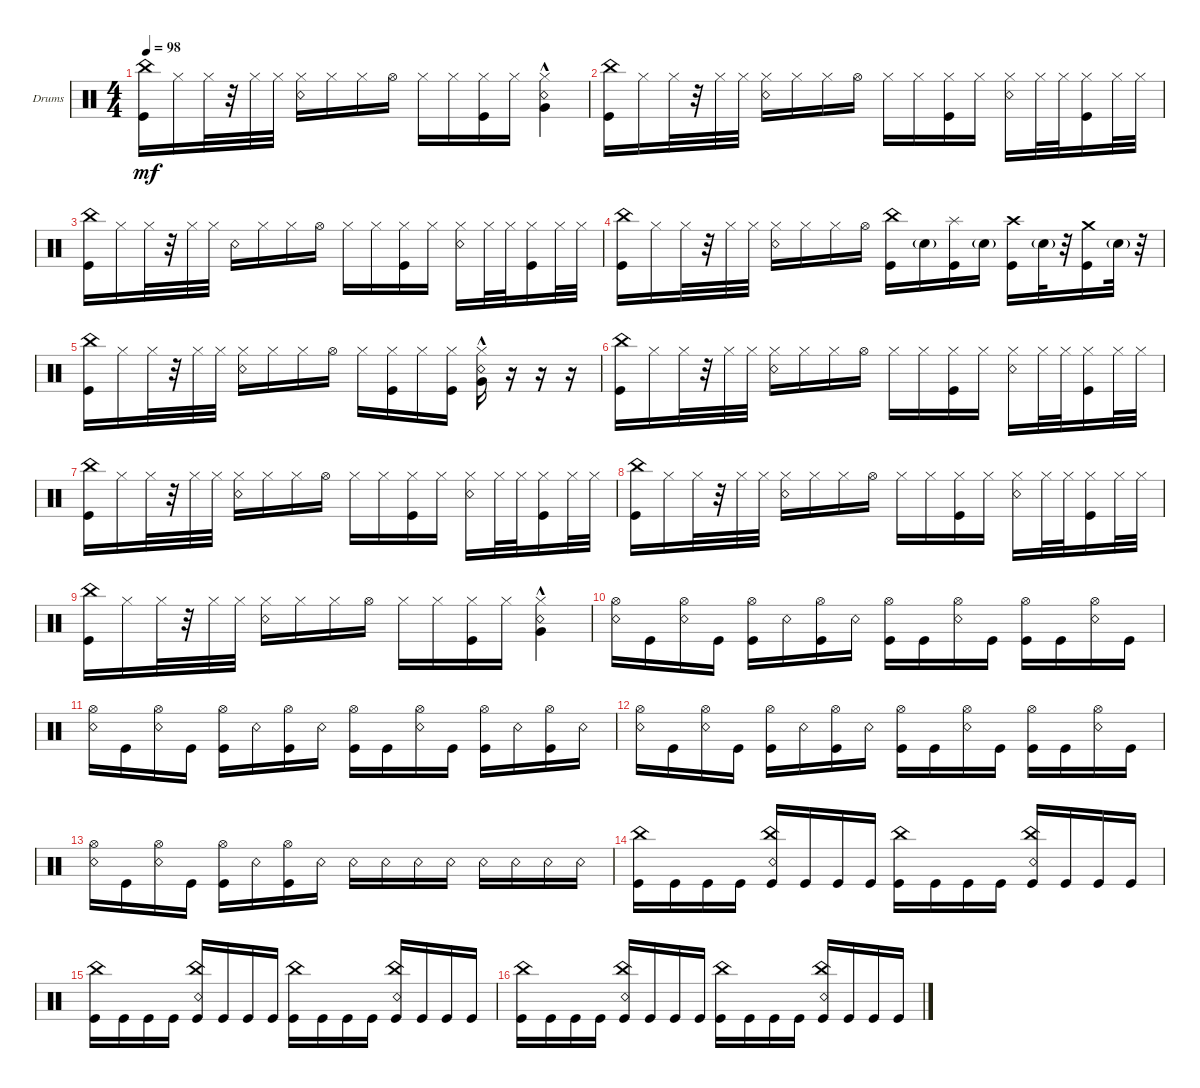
\defaultSystemsLayout 4
\bracketExtendMode groupsimilarinstruments
\firstSystemTrackNameOrientation horizontal
\otherSystemsTrackNameOrientation horizontal
\track ("Drumkit" "Drums") {instrument percussion}
\staff {score}
\articulation defaults
\ts (4 4)
\tempo 98
\clef neutral
\ks c
("Kick (hit)" "China (hit)").16{dy mf} "Hi-Hat (closed)".16 "Hi-Hat (closed)".32 r.32 "Hi-Hat (closed)".32 "Hi-Hat (closed)".32 ("Hi-Hat (closed)" "Snare (rim shot)").16 "Hi-Hat (closed)".16 "Hi-Hat (closed)".16 "Hi-Hat (open)".16 "Hi-Hat (closed)".16 "Hi-Hat (closed)".16 ("Hi-Hat (closed)" "Kick (hit)").16 "Hi-Hat (closed)".16 ("Hi-Hat (closed)" "Snare (rim shot)" "Very Low Tom (hit)"{hac}).4 |
\scale
0.333333 ("Kick (hit)" "China (hit)").16 "Hi-Hat (closed)".16 "Hi-Hat (closed)".32 r.32 "Hi-Hat (closed)".32 "Hi-Hat (closed)".32 ("Hi-Hat (closed)" "Snare (rim shot)").16 "Hi-Hat (closed)".16 "Hi-Hat (closed)".16 "Hi-Hat (open)".16 "Hi-Hat (closed)".16 "Hi-Hat (closed)".16 ("Hi-Hat (closed)" "Kick (hit)").16 "Hi-Hat (closed)".16 ("Hi-Hat (closed)" "Snare (rim shot)").16 "Hi-Hat (closed)".32 "Hi-Hat (closed)".32 ("Hi-Hat (closed)" "Kick (hit)").16 "Hi-Hat (closed)".32 "Hi-Hat (closed)".32 |
\scale
0.333333 ("Kick (hit)" "China (hit)").16 "Hi-Hat (closed)".16 "Hi-Hat (closed)".32 r.32 "Hi-Hat (closed)".32 "Hi-Hat (closed)".32 "Snare (rim shot)".16 "Hi-Hat (closed)".16 "Hi-Hat (closed)".16 "Hi-Hat (open)".16 "Hi-Hat (closed)".16 "Hi-Hat (closed)".16 ("Hi-Hat (closed)" "Kick (hit)").16 "Hi-Hat (closed)".16 ("Hi-Hat (closed)" "Snare (rim shot)").16 "Hi-Hat (closed)".32 "Hi-Hat (closed)".32 ("Hi-Hat (closed)" "Kick (hit)").16 "Hi-Hat (closed)".32 "Hi-Hat (closed)".32 |
\scale
0.333333 ("Kick (hit)" "China (hit)").16 "Hi-Hat (closed)".16 "Hi-Hat (closed)".32 r.32 "Hi-Hat (closed)".32 "Hi-Hat (closed)".32 ("Hi-Hat (closed)" "Snare (rim shot)").16 "Hi-Hat (closed)".16 "Hi-Hat (closed)".16 "Hi-Hat (open)".16 ("China (hit)" "Kick (hit)").16 "Snare (hit) 2"{g}.16 ("Kick (hit)" "Splash (hit)").16 "Snare (hit) 2"{g}.16 ("Kick (hit)" "Crash high (hit)").16 "Snare (hit) 2"{g}.32 r.32 ("Kick (hit)" "Crash medium (hit)").16 "Snare (hit) 2"{g}.32 r.32 |
\scale
0.333333 ("Kick (hit)" "China (hit)").16 "Hi-Hat (closed)".16 "Hi-Hat (closed)".32 r.32 "Hi-Hat (closed)".32 "Hi-Hat (closed)".32 ("Hi-Hat (closed)" "Snare (rim shot)").16 "Hi-Hat (closed)".16 "Hi-Hat (closed)".16 "Hi-Hat (open)".16 "Hi-Hat (closed)".16 ("Hi-Hat (closed)" "Kick (hit)").16 "Hi-Hat (closed)".16 ("Hi-Hat (closed)" "Kick (hit)").16 ("Hi-Hat (closed)" "Snare (rim shot)" "Very Low Tom (hit)"{hac}).16 r.16 r.16 r.16 |
\scale
0.333333 ("Kick (hit)" "China (hit)").16 "Hi-Hat (closed)".16 "Hi-Hat (closed)".32 r.32 "Hi-Hat (closed)".32 "Hi-Hat (closed)".32 ("Hi-Hat (closed)" "Snare (rim shot)").16 "Hi-Hat (closed)".16 "Hi-Hat (closed)".16 "Hi-Hat (open)".16 "Hi-Hat (closed)".16 "Hi-Hat (closed)".16 ("Hi-Hat (closed)" "Kick (hit)").16 "Hi-Hat (closed)".16 ("Hi-Hat (closed)" "Snare (rim shot)").16 "Hi-Hat (closed)".32 "Hi-Hat (closed)".32 ("Hi-Hat (closed)" "Kick (hit)").16 "Hi-Hat (closed)".32 "Hi-Hat (closed)".32 |
\scale
0.333333 ("Kick (hit)" "China (hit)").16 "Hi-Hat (closed)".16 "Hi-Hat (closed)".32 r.32 "Hi-Hat (closed)".32 "Hi-Hat (closed)".32 ("Hi-Hat (closed)" "Snare (rim shot)").16 "Hi-Hat (closed)".16 "Hi-Hat (closed)".16 "Hi-Hat (open)".16 "Hi-Hat (closed)".16 "Hi-Hat (closed)".16 ("Hi-Hat (closed)" "Kick (hit)").16 "Hi-Hat (closed)".16 ("Hi-Hat (closed)" "Snare (rim shot)").16 "Hi-Hat (closed)".32 "Hi-Hat (closed)".32 ("Hi-Hat (closed)" "Kick (hit)").16 "Hi-Hat (closed)".32 "Hi-Hat (closed)".32 |
\scale
0.333333 ("Kick (hit)" "China (hit)").16 "Hi-Hat (closed)".16 "Hi-Hat (closed)".32 r.32 "Hi-Hat (closed)".32 "Hi-Hat (closed)".32 ("Hi-Hat (closed)" "Snare (rim shot)").16 "Hi-Hat (closed)".16 "Hi-Hat (closed)".16 "Hi-Hat (open)".16 "Hi-Hat (closed)".16 "Hi-Hat (closed)".16 ("Hi-Hat (closed)" "Kick (hit)").16 "Hi-Hat (closed)".16 ("Hi-Hat (closed)" "Snare (rim shot)").16 "Hi-Hat (closed)".32 "Hi-Hat (closed)".32 ("Hi-Hat (closed)" "Kick (hit)").16 "Hi-Hat (closed)".32 "Hi-Hat (closed)".32 |
\scale
0.333333 ("Kick (hit)" "China (hit)").16 "Hi-Hat (closed)".16 "Hi-Hat (closed)".32 r.32 "Hi-Hat (closed)".32 "Hi-Hat (closed)".32 ("Hi-Hat (closed)" "Snare (rim shot)").16 "Hi-Hat (closed)".16 "Hi-Hat (closed)".16 "Hi-Hat (open)".16 "Hi-Hat (closed)".16 "Hi-Hat (closed)".16 ("Hi-Hat (closed)" "Kick (hit)").16 "Hi-Hat (closed)".16 ("Hi-Hat (closed)" "Snare (rim shot)" "Very Low Tom (hit)"{hac}).4 |
\scale
0.333333 ("Snare (rim shot)" "Hi-Hat (open)").16 "Kick (hit)".16 ("Snare (rim shot)" "Hi-Hat (open)").16 "Kick (hit)".16 ("Kick (hit)" "Hi-Hat (open)").16 "Snare (rim shot)".16 ("Kick (hit)" "Hi-Hat (open)").16 "Snare (rim shot)".16 ("Kick (hit)" "Hi-Hat (open)").16 "Kick (hit)".16 ("Snare (rim shot)" "Hi-Hat (open)").16 "Kick (hit)".16 ("Kick (hit)" "Hi-Hat (open)").16 "Kick (hit)".16 ("Snare (rim shot)" "Hi-Hat (open)").16 "Kick (hit)".16 |
\scale
0.333333 ("Snare (rim shot)" "Hi-Hat (open)").16 "Kick (hit)".16 ("Snare (rim shot)" "Hi-Hat (open)").16 "Kick (hit)".16 ("Kick (hit)" "Hi-Hat (open)").16 "Snare (rim shot)".16 ("Kick (hit)" "Hi-Hat (open)").16 "Snare (rim shot)".16 ("Kick (hit)" "Hi-Hat (open)").16 "Kick (hit)".16 ("Snare (rim shot)" "Hi-Hat (open)").16 "Kick (hit)".16 ("Kick (hit)" "Hi-Hat (open)").16 "Snare (rim shot)".16 ("Kick (hit)" "Hi-Hat (open)").16 "Snare (rim shot)".16 |
\scale
0.333333 ("Snare (rim shot)" "Hi-Hat (open)").16 "Kick (hit)".16 ("Snare (rim shot)" "Hi-Hat (open)").16 "Kick (hit)".16 ("Kick (hit)" "Hi-Hat (open)").16 "Snare (rim shot)".16 ("Kick (hit)" "Hi-Hat (open)").16 "Snare (rim shot)".16 ("Kick (hit)" "Hi-Hat (open)").16 "Kick (hit)".16 ("Snare (rim shot)" "Hi-Hat (open)").16 "Kick (hit)".16 ("Kick (hit)" "Hi-Hat (open)").16 "Kick (hit)".16 ("Snare (rim shot)" "Hi-Hat (open)").16 "Kick (hit)".16 |
\scale
0.333333 ("Snare (rim shot)" "Hi-Hat (open)").16 "Kick (hit)".16 ("Snare (rim shot)" "Hi-Hat (open)").16 "Kick (hit)".16 ("Kick (hit)" "Hi-Hat (open)").16 "Snare (rim shot)".16 ("Kick (hit)" "Hi-Hat (open)").16 "Snare (rim shot)".16 "Snare (rim shot)".16 "Snare (rim shot)".16 "Snare (rim shot)".16 "Snare (rim shot)".16 "Snare (rim shot)".16 "Snare (rim shot)".16 "Snare (rim shot)".16 "Snare (rim shot)".16 |
\scale
0.333333 ("Kick (hit)" "China (hit)").16 "Kick (hit)".16 "Kick (hit)".16 "Kick (hit)".16 ("Kick (hit)" "China (hit)" "Snare (rim shot)").16 "Kick (hit)".16 "Kick (hit)".16 "Kick (hit)".16 ("Kick (hit)" "China (hit)").16 "Kick (hit)".16 "Kick (hit)".16 "Kick (hit)".16 ("Kick (hit)" "Snare (rim shot)" "China (hit)").16 "Kick (hit)".16 "Kick (hit)".16 "Kick (hit)".16 |
\scale
0.333333 ("Kick (hit)" "China (hit)").16 "Kick (hit)".16 "Kick (hit)".16 "Kick (hit)".16 ("Kick (hit)" "China (hit)" "Snare (rim shot)").16 "Kick (hit)".16 "Kick (hit)".16 "Kick (hit)".16 ("Kick (hit)" "China (hit)").16 "Kick (hit)".16 "Kick (hit)".16 "Kick (hit)".16 ("Kick (hit)" "Snare (rim shot)" "China (hit)").16 "Kick (hit)".16 "Kick (hit)".16 "Kick (hit)".16 |
\scale
0.333333 ("Kick (hit)" "China (hit)").16 "Kick (hit)".16 "Kick (hit)".16 "Kick (hit)".16 ("Kick (hit)" "China (hit)" "Snare (rim shot)").16 "Kick (hit)".16 "Kick (hit)".16 "Kick (hit)".16 ("Kick (hit)" "China (hit)").16 "Kick (hit)".16 "Kick (hit)".16 "Kick (hit)".16 ("Kick (hit)" "Snare (rim shot)" "China (hit)").16 "Kick (hit)".16 "Kick (hit)".16 "Kick (hit)".16
